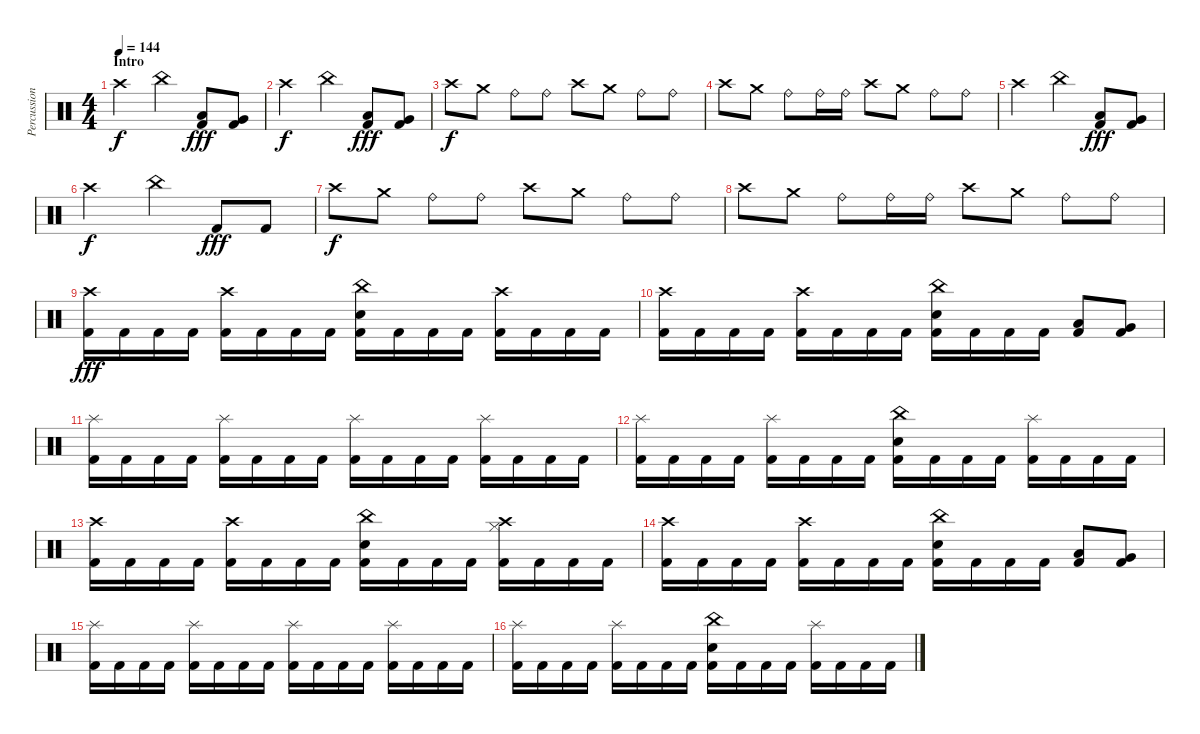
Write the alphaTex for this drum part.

\track ("Percussion" "Percussion") {instrument percussion}
\staff {score}
\articulation defaults
\ts (4 4)
\section ("" "Intro")
\tempo 144
\clef neutral
\ks c "Crash high (hit)".2{dy f} "China (hit)".4
("Low Tom (hit)" "Kick (hit) 2").8{dy fff} ("Very Low Tom (hit)" "Kick (hit) 2").8 |
"Crash high (hit)".2{dy f} "China (hit)".4 ("Low Tom (hit)" "Kick (hit) 2").8{dy fff} ("Very Low Tom (hit)" "Kick (hit) 2").8 |
"Crash high (hit)".8{dy f} "Crash medium (hit)".8 "Ride (bell)".8 "Ride (bell)".8 "Crash high (hit)".8 "Crash medium (hit)".8 "Ride (bell)".8 "Ride (bell)".8 |
"Crash high (hit)".8 "Crash medium (hit)".8 "Ride (bell)".8 "Ride (bell)".16 "Ride (bell)".16 "Crash high (hit)".8 "Crash medium (hit)".8 "Ride (bell)".8 "Ride (bell)".8 |
"Crash high (hit)".2 "China (hit)".4 ("Low Tom (hit)" "Kick (hit) 2").8{dy fff} ("Very Low Tom (hit)" "Kick (hit) 2").8 |
"Crash high (hit)".2{dy f} "China (hit)".4 "Kick (hit) 2".8{dy fff} "Kick (hit) 2".8 |
"Crash high (hit)".8{dy f} "Crash medium (hit)".8 "Ride (bell)".8 "Ride (bell)".8 "Crash high (hit)".8 "Crash medium (hit)".8 "Ride (bell)".8 "Ride (bell)".8 |
"Crash high (hit)".8 "Crash medium (hit)".8 "Ride (bell)".8 "Ride (bell)".16 "Ride (bell)".16 "Crash high (hit)".8 "Crash medium (hit)".8 "Ride (bell)".8 "Ride (bell)".8 |
("Crash high (hit)" "Kick (hit) 2").16{dy fff} "Kick (hit) 2".16 "Kick (hit) 2".16 "Kick (hit) 2".16 ("Crash high (hit)" "Kick (hit) 2").16 "Kick (hit) 2".16 "Kick (hit) 2".16 "Kick (hit) 2".16 ("China (hit)" "Electric Snare (hit)" "Kick (hit) 2").16 "Kick (hit) 2".16 "Kick (hit) 2".16 "Kick (hit) 2".16 ("Crash high (hit)" "Kick (hit) 2").16 "Kick (hit) 2".16 "Kick (hit) 2".16 "Kick (hit) 2".16 |
("Crash high (hit)" "Kick (hit) 2").16 "Kick (hit) 2".16 "Kick (hit) 2".16 "Kick (hit) 2".16 ("Crash high (hit)" "Kick (hit) 2").16 "Kick (hit) 2".16 "Kick (hit) 2".16 "Kick (hit) 2".16 ("China (hit)" "Electric Snare (hit)" "Kick (hit) 2").16 "Kick (hit) 2".16 "Kick (hit) 2".16 "Kick (hit) 2".16 ("Low Tom (hit)" "Kick (hit) 2").8 ("Very Low Tom (hit)" "Kick (hit) 2").8 |
("Splash (hit)" "Kick (hit) 2").16 "Kick (hit) 2".16 "Kick (hit) 2".16 "Kick (hit) 2".16 ("Splash (hit)" "Kick (hit) 2").16 "Kick (hit) 2".16 "Kick (hit) 2".16 "Kick (hit) 2".16 ("Splash (hit)" "Kick (hit) 2").16 "Kick (hit) 2".16 "Kick (hit) 2".16 "Kick (hit) 2".16 ("Splash (hit)" "Kick (hit) 2").16 "Kick (hit) 2".16 "Kick (hit) 2".16 "Kick (hit) 2".16 |
("Splash (hit)" "Kick (hit) 2").16 "Kick (hit) 2".16 "Kick (hit) 2".16 "Kick (hit) 2".16 ("Splash (hit)" "Kick (hit) 2").16 "Kick (hit) 2".16 "Kick (hit) 2".16 "Kick (hit) 2".16 ("China (hit)" "Electric Snare (hit)" "Kick (hit) 2").16 "Kick (hit) 2".16 "Kick (hit) 2".16 "Kick (hit) 2".16 ("Splash (hit)" "Kick (hit) 2").16 "Kick (hit) 2".16 "Kick (hit) 2".16 "Kick (hit) 2".16 |
("Crash high (hit)" "Kick (hit) 2").16 "Kick (hit) 2".16 "Kick (hit) 2".16 "Kick (hit) 2".16 ("Crash high (hit)" "Kick (hit) 2").16 "Kick (hit) 2".16 "Kick (hit) 2".16 "Kick (hit) 2".16 ("China (hit)" "Electric Snare (hit)" "Kick (hit) 2").16 "Kick (hit) 2".16 "Kick (hit) 2".16 "Kick (hit) 2".16 ("Crash high (hit)" "Hi-Hat (closed)" "Kick (hit) 2").16 "Kick (hit) 2".16 "Kick (hit) 2".16 "Kick (hit) 2".16 |
("Crash high (hit)" "Kick (hit) 2").16 "Kick (hit) 2".16 "Kick (hit) 2".16 "Kick (hit) 2".16 ("Crash high (hit)" "Kick (hit) 2").16 "Kick (hit) 2".16 "Kick (hit) 2".16 "Kick (hit) 2".16 ("China (hit)" "Electric Snare (hit)" "Kick (hit) 2").16 "Kick (hit) 2".16 "Kick (hit) 2".16 "Kick (hit) 2".16 ("Low Tom (hit)" "Kick (hit) 2").8 ("Very Low Tom (hit)" "Kick (hit) 2").8 |
("Splash (hit)" "Kick (hit) 2").16 "Kick (hit) 2".16 "Kick (hit) 2".16 "Kick (hit) 2".16 ("Splash (hit)" "Kick (hit) 2").16 "Kick (hit) 2".16 "Kick (hit) 2".16 "Kick (hit) 2".16 ("Splash (hit)" "Kick (hit) 2").16 "Kick (hit) 2".16 "Kick (hit) 2".16 "Kick (hit) 2".16 ("Splash (hit)" "Kick (hit) 2").16 "Kick (hit) 2".16 "Kick (hit) 2".16 "Kick (hit) 2".16 |
("Splash (hit)" "Kick (hit) 2").16 "Kick (hit) 2".16 "Kick (hit) 2".16 "Kick (hit) 2".16 ("Splash (hit)" "Kick (hit) 2").16 "Kick (hit) 2".16 "Kick (hit) 2".16 "Kick (hit) 2".16 ("China (hit)" "Electric Snare (hit)" "Kick (hit) 2").16 "Kick (hit) 2".16 "Kick (hit) 2".16 "Kick (hit) 2".16 ("Splash (hit)" "Kick (hit) 2").16 "Kick (hit) 2".16 "Kick (hit) 2".16 "Kick (hit) 2".16
